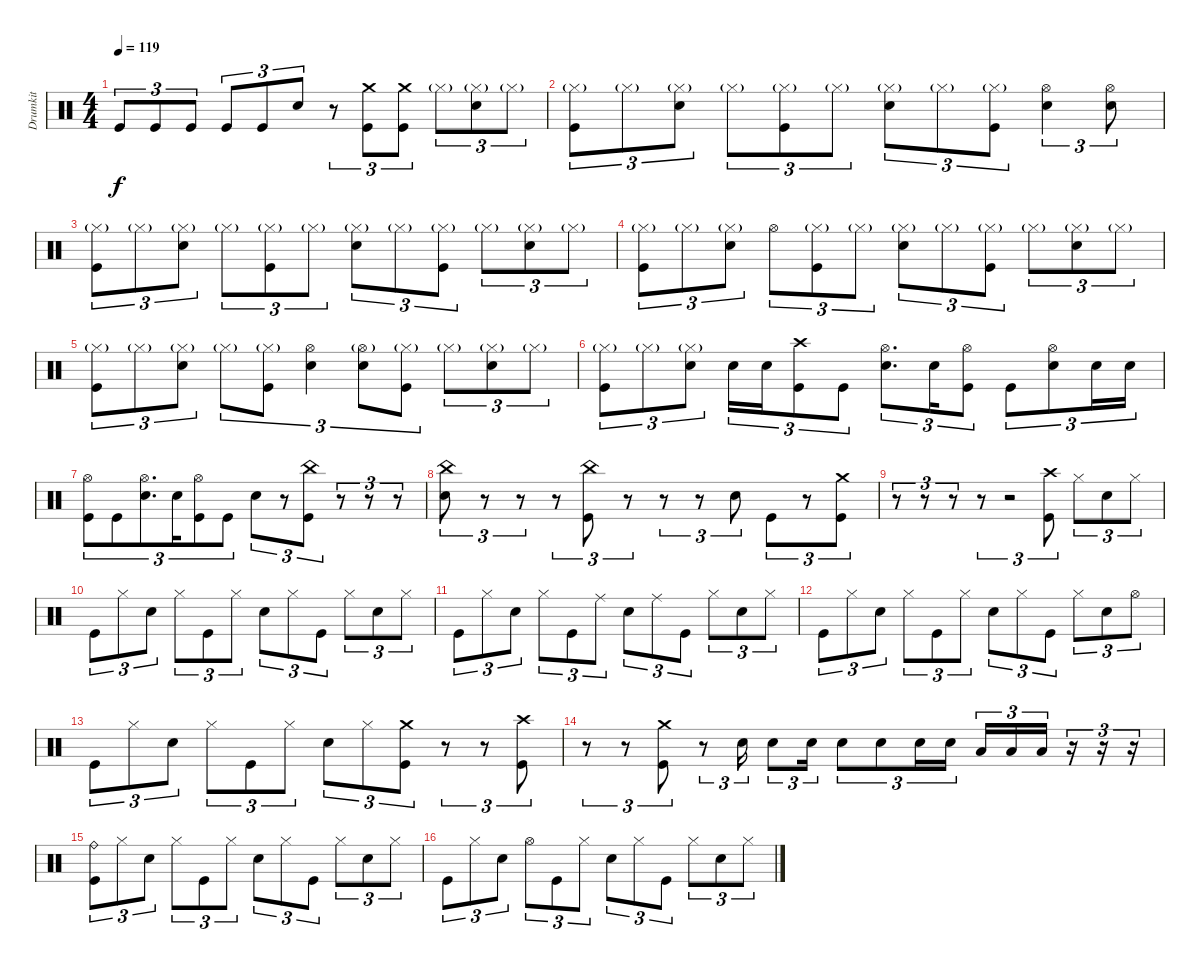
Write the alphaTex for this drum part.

\track ("Drumkit" "Drumkit") {instrument percussion}
\staff {score}
\articulation defaults
\ts (4 4)
\tempo 119
\clef neutral
\ks c "Kick (hit)".8{tu (3 2) dy f} "Kick (hit)".8{tu (3 2)} "Kick (hit)".8{tu (3 2)} "Kick (hit)".8{tu (3 2)} "Kick (hit)".8{tu (3 2)} "Snare (hit) 2".8{tu (3 2)}
r.8{tu (3 2)} ("Kick (hit)" "Crash medium (hit)").8{tu (3 2)} ("Kick (hit)" "Crash medium (hit)").8{tu (3 2)} "Hi-Hat (closed)"{g}.8{tu (3 2)} ("Snare (hit) 2" "Hi-Hat (closed)"{g}).8{tu (3 2)} "Hi-Hat (closed)"{g}.8{tu (3 2)} |
("Kick (hit)" "Hi-Hat (closed)"{g}).8{tu (3 2)} "Hi-Hat (closed)"{g}.8{tu (3 2)} ("Snare (hit) 2" "Hi-Hat (closed)"{g}).8{tu (3 2)} "Hi-Hat (closed)"{g}.8{tu (3 2)} ("Kick (hit)" "Hi-Hat (closed)"{g}).8{tu (3 2)} "Hi-Hat (closed)"{g}.8{tu (3 2)} ("Snare (hit) 2" "Hi-Hat (closed)"{g}).8{tu (3 2)} "Hi-Hat (closed)"{g}.8{tu (3 2)} ("Kick (hit)" "Hi-Hat (closed)"{g}).8{tu (3 2)} ("Snare (hit) 2" "Hi-Hat (open)").4{tu (3 2)} ("Snare (hit) 2" "Hi-Hat (open)").8{tu (3 2)} |
("Kick (hit)" "Hi-Hat (closed)"{g}).8{tu (3 2)} "Hi-Hat (closed)"{g}.8{tu (3 2)} ("Snare (hit) 2" "Hi-Hat (closed)"{g}).8{tu (3 2)} "Hi-Hat (closed)"{g}.8{tu (3 2)} ("Kick (hit)" "Hi-Hat (closed)"{g}).8{tu (3 2)} "Hi-Hat (closed)"{g}.8{tu (3 2)} ("Snare (hit) 2" "Hi-Hat (closed)"{g}).8{tu (3 2)} "Hi-Hat (closed)"{g}.8{tu (3 2)} ("Hi-Hat (closed)"{g} "Kick (hit)").8{tu (3 2)} "Hi-Hat (closed)"{g}.8{tu (3 2)} ("Hi-Hat (closed)"{g} "Snare (hit) 2").8{tu (3 2)} "Hi-Hat (closed)"{g}.8{tu (3 2)} |
("Hi-Hat (closed)"{g} "Kick (hit)").8{tu (3 2)} "Hi-Hat (closed)"{g}.8{tu (3 2)} ("Hi-Hat (closed)"{g} "Snare (hit) 2").8{tu (3 2)} "Hi-Hat (open)".8{tu (3 2)} ("Kick (hit)" "Hi-Hat (closed)"{g}).8{tu (3 2)} "Hi-Hat (closed)"{g}.8{tu (3 2)} ("Hi-Hat (closed)"{g} "Snare (hit) 2").8{tu (3 2)} "Hi-Hat (closed)"{g}.8{tu (3 2)} ("Hi-Hat (closed)"{g} "Kick (hit)").8{tu (3 2)} "Hi-Hat (closed)"{g}.8{tu (3 2)} ("Hi-Hat (closed)"{g} "Snare (hit) 2").8{tu (3 2)} "Hi-Hat (closed)"{g}.8{tu (3 2)} |
("Hi-Hat (closed)"{g} "Kick (hit)").8{tu (3 2)} "Hi-Hat (closed)"{g}.8{tu (3 2)} ("Hi-Hat (closed)"{g} "Snare (hit) 2").8{tu (3 2)} "Hi-Hat (closed)"{g}.8{tu (3 2)} ("Kick (hit)" "Hi-Hat (closed)"{g}).8{tu (3 2)} ("Snare (hit) 2" "Hi-Hat (open)").4{tu (3 2)} ("Snare (hit) 2" "Hi-Hat (open)"{g}).8{tu (3 2)} ("Kick (hit)" "Hi-Hat (closed)"{g}).8{tu (3 2)} "Hi-Hat (closed)"{g}.8{tu (3 2)} ("Hi-Hat (closed)"{g} "Snare (hit) 2").8{tu (3 2)} "Hi-Hat (closed)"{g}.8{tu (3 2)} |
("Kick (hit)" "Hi-Hat (closed)"{g}).8{tu (3 2)} "Hi-Hat (closed)"{g}.8{tu (3 2)} ("Snare (hit) 2" "Hi-Hat (closed)"{g}).8{tu (3 2)} "Snare (hit) 2".16{tu (3 2)} "Snare (hit) 2".16{tu (3 2)} ("Kick (hit)" "Crash high (hit)").8{tu (3 2)} "Kick (hit)".8{tu (3 2)} ("Snare (hit) 2" "Hi-Hat (open)").8{d tu (3 2)} "Snare (hit) 2".16{tu (3 2)} ("Kick (hit)" "Hi-Hat (open)").8{tu (3 2)} "Kick (hit)".8{tu (3 2)} ("Snare (hit) 2" "Hi-Hat (open)").8{tu (3 2)} "Snare (hit) 2".16{tu (3 2)} "Snare (hit) 2".16{tu (3 2)} |
("Kick (hit)" "Hi-Hat (open)").8{tu (3 2)} "Kick (hit)".8{tu (3 2)} ("Snare (hit) 2" "Hi-Hat (open)").8{d tu (3 2)} "Snare (hit) 2".16{tu (3 2)} ("Kick (hit)" "Hi-Hat (open)").8{tu (3 2)} "Kick (hit)".8{tu (3 2)} "Snare (hit) 2".8{tu (3 2)} r.8{tu (3 2)} ("Kick (hit)" "China (hit)").8{tu (3 2)} r.8{tu (3 2)} r.8{tu (3 2)} r.8{tu (3 2)} |
("Snare (hit) 2" "China (hit)").8{tu (3 2)} r.8{tu (3 2)} r.8{tu (3 2)} r.8{tu (3 2)} ("Kick (hit)" "China (hit)").8{tu (3 2)} r.8{tu (3 2)} r.8{tu (3 2)} r.8{tu (3 2)} "Snare (hit) 2".8{tu (3 2)} "Kick (hit)".8{tu (3 2)} r.8{tu (3 2)} ("Crash medium (hit)" "Kick (hit)").8{tu (3 2)} |
r.8{tu (3 2)} r.8{tu (3 2)} r.8{tu (3 2)} r.8{tu (3 2)} r.2{tu (3 2)} ("Kick (hit)" "Crash high (hit)").8{tu (3 2)} "Hi-Hat (closed)".8{tu (3 2)} "Snare (hit) 2".8{tu (3 2)} "Hi-Hat (closed)".8{tu (3 2)} |
"Kick (hit)".8{tu (3 2)} "Hi-Hat (closed)".8{tu (3 2)} "Snare (hit) 2".8{tu (3 2)} "Hi-Hat (closed)".8{tu (3 2)} "Kick (hit)".8{tu (3 2)} "Hi-Hat (closed)".8{tu (3 2)} "Snare (hit) 2".8{tu (3 2)} "Hi-Hat (closed)".8{tu (3 2)} "Kick (hit)".8{tu (3 2)} "Hi-Hat (closed)".8{tu (3 2)} "Snare (hit) 2".8{tu (3 2)} "Hi-Hat (closed)".8{tu (3 2)} |
"Kick (hit)".8{tu (3 2)} "Hi-Hat (closed)".8{tu (3 2)} "Snare (hit) 2".8{tu (3 2)} "Hi-Hat (closed)".8{tu (3 2)} "Kick (hit)".8{tu (3 2)} "Ride (middle)".8{tu (3 2)} "Snare (hit) 2".8{tu (3 2)} "Ride (middle)".8{tu (3 2)} "Kick (hit)".8{tu (3 2)} "Hi-Hat (closed)".8{tu (3 2)} "Snare (hit) 2".8{tu (3 2)} "Hi-Hat (closed)".8{tu (3 2)} |
"Kick (hit)".8{tu (3 2)} "Hi-Hat (closed)".8{tu (3 2)} "Snare (hit) 2".8{tu (3 2)} "Hi-Hat (closed)".8{tu (3 2)} "Kick (hit)".8{tu (3 2)} "Hi-Hat (closed)".8{tu (3 2)} "Snare (hit) 2".8{tu (3 2)} "Hi-Hat (closed)".8{tu (3 2)} "Kick (hit)".8{tu (3 2)} "Hi-Hat (closed)".8{tu (3 2)} "Snare (hit) 2".8{tu (3 2)} "Hi-Hat (open)".8{tu (3 2)} |
"Kick (hit)".8{tu (3 2)} "Hi-Hat (closed)".8{tu (3 2)} "Snare (hit) 2".8{tu (3 2)} "Hi-Hat (closed)".8{tu (3 2)} "Kick (hit)".8{tu (3 2)} "Hi-Hat (closed)".8{tu (3 2)} "Snare (hit) 2".8{tu (3 2)} "Hi-Hat (closed)".8{tu (3 2)} ("Kick (hit)" "Crash medium (hit)").8{tu (3 2)} r.8{tu (3 2)} r.8{tu (3 2)} ("Kick (hit)" "Crash high (hit)").8{tu (3 2)} |
r.8{tu (3 2)} r.8{tu (3 2)} ("Kick (hit)" "Crash medium (hit)").8{tu (3 2)} r.8{tu (3 2)} "Snare (hit) 2".16{tu (3 2)} "Snare (hit) 2".8{tu (3 2)} "Snare (hit) 2".16{tu (3 2)} "Snare (hit) 2".8{tu (3 2)} "Snare (hit) 2".8{tu (3 2)} "Snare (hit) 2".16{tu (3 2)} "Snare (hit) 2".16{tu (3 2)} "Low Tom (hit)".16{tu (3 2)} "Low Tom (hit)".16{tu (3 2)} "Low Tom (hit)".16{tu (3 2)} r.16{tu (3 2)} r.16{tu (3 2)} r.16{tu (3 2)} |
("Kick (hit)" "Ride (bell)").8{tu (3 2)} "Hi-Hat (closed)".8{tu (3 2)} "Snare (hit) 2".8{tu (3 2)} "Hi-Hat (closed)".8{tu (3 2)} "Kick (hit)".8{tu (3 2)} "Hi-Hat (closed)".8{tu (3 2)} "Snare (hit) 2".8{tu (3 2)} "Hi-Hat (closed)".8{tu (3 2)} "Kick (hit)".8{tu (3 2)} "Hi-Hat (closed)".8{tu (3 2)} "Snare (hit) 2".8{tu (3 2)} "Hi-Hat (closed)".8{tu (3 2)} |
"Kick (hit)".8{tu (3 2)} "Hi-Hat (closed)".8{tu (3 2)} "Snare (hit) 2".8{tu (3 2)} "Hi-Hat (open)".8{tu (3 2)} "Kick (hit)".8{tu (3 2)} "Hi-Hat (closed)".8{tu (3 2)} "Snare (hit) 2".8{tu (3 2)} "Hi-Hat (closed)".8{tu (3 2)} "Kick (hit)".8{tu (3 2)} "Hi-Hat (closed)".8{tu (3 2)} "Snare (hit) 2".8{tu (3 2)} "Hi-Hat (closed)".8{tu (3 2)}
